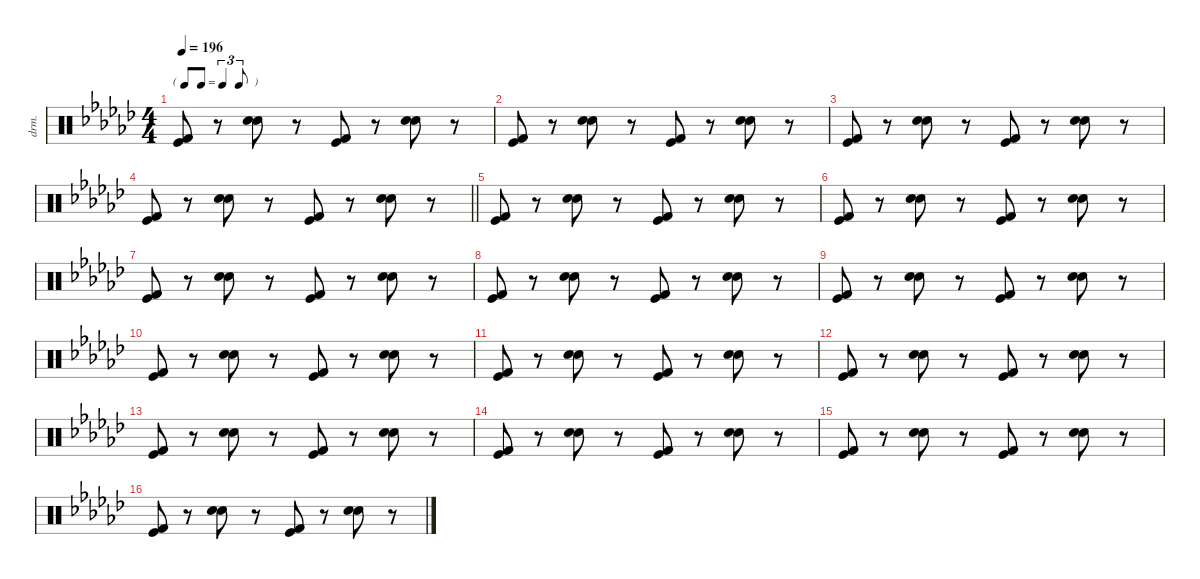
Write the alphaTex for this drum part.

\defaultSystemsLayout 4
\hideDynamics
\bracketExtendMode nobrackets
\otherSystemsTrackNameOrientation horizontal
\track ("Percussions" "drm.") {defaultSystemsLayout 4 instrument percussion}
\staff {score}
\articulation defaults
\ts (4 4)
\tf triplet8th
\tempo 196
\clef neutral
\ks gb
("Kick (hit) 2"{acc forcenatural} "Kick (hit)"{acc forcenatural}).8{dy f beam Up} r.8{beam Up} ("Snare (hit) 2"{acc forcenatural} "Snare (hit) 2"{acc forcenatural}).8{beam Down} r.8{beam Down} ("Kick (hit) 2"{acc forcenatural} "Kick (hit)"{acc forcenatural}).8{beam Up} r.8{beam Up} ("Snare (hit) 2"{acc forcenatural} "Snare (hit) 2"{acc forcenatural}).8{beam Down} r.8{beam Down} |
("Kick (hit) 2"{acc forcenatural} "Kick (hit)"{acc forcenatural}).8{beam Up} r.8{beam Up} ("Snare (hit) 2"{acc forcenatural} "Snare (hit) 2"{acc forcenatural}).8{beam Down} r.8{beam Down} ("Kick (hit) 2"{acc forcenatural} "Kick (hit)"{acc forcenatural}).8{beam Up} r.8{beam Up} ("Snare (hit) 2"{acc forcenatural} "Snare (hit) 2"{acc forcenatural}).8{beam Down} r.8{beam Down} |
("Kick (hit) 2"{acc forcenatural} "Kick (hit)"{acc forcenatural}).8{beam Up} r.8{beam Up} ("Snare (hit) 2"{acc forcenatural} "Snare (hit) 2"{acc forcenatural}).8{beam Down} r.8{beam Down} ("Kick (hit) 2"{acc forcenatural} "Kick (hit)"{acc forcenatural}).8{beam Up} r.8{beam Up} ("Snare (hit) 2"{acc forcenatural} "Snare (hit) 2"{acc forcenatural}).8{beam Down} r.8{beam Down} |
\barLineRight lightlight
("Kick (hit) 2"{acc forcenatural} "Kick (hit)"{acc forcenatural}).8{beam Up} r.8{beam Up} ("Snare (hit) 2"{acc forcenatural} "Snare (hit) 2"{acc forcenatural}).8{beam Down} r.8{beam Down} ("Kick (hit) 2"{acc forcenatural} "Kick (hit)"{acc forcenatural}).8{beam Up} r.8{beam Up} ("Snare (hit) 2"{acc forcenatural} "Snare (hit) 2"{acc forcenatural}).8{beam Down} r.8{beam Down} |
("Kick (hit) 2"{acc forcenatural} "Kick (hit)"{acc forcenatural}).8{beam Up} r.8{beam Up} ("Snare (hit) 2"{acc forcenatural} "Snare (hit) 2"{acc forcenatural}).8{beam Down} r.8{beam Down} ("Kick (hit) 2"{acc forcenatural} "Kick (hit)"{acc forcenatural}).8{beam Up} r.8{beam Up} ("Snare (hit) 2"{acc forcenatural} "Snare (hit) 2"{acc forcenatural}).8{beam Down} r.8{beam Down} |
("Kick (hit) 2"{acc forcenatural} "Kick (hit)"{acc forcenatural}).8{beam Up} r.8{beam Up} ("Snare (hit) 2"{acc forcenatural} "Snare (hit) 2"{acc forcenatural}).8{beam Down} r.8{beam Down} ("Kick (hit) 2"{acc forcenatural} "Kick (hit)"{acc forcenatural}).8{beam Up} r.8{beam Up} ("Snare (hit) 2"{acc forcenatural} "Snare (hit) 2"{acc forcenatural}).8{beam Down} r.8{beam Down} |
("Kick (hit) 2"{acc forcenatural} "Kick (hit)"{acc forcenatural}).8{beam Up} r.8{beam Up} ("Snare (hit) 2"{acc forcenatural} "Snare (hit) 2"{acc forcenatural}).8{beam Down} r.8{beam Down} ("Kick (hit) 2"{acc forcenatural} "Kick (hit)"{acc forcenatural}).8{beam Up} r.8{beam Up} ("Snare (hit) 2"{acc forcenatural} "Snare (hit) 2"{acc forcenatural}).8{beam Down} r.8{beam Down} |
("Kick (hit) 2"{acc forcenatural} "Kick (hit)"{acc forcenatural}).8{beam Up} r.8{beam Up} ("Snare (hit) 2"{acc forcenatural} "Snare (hit) 2"{acc forcenatural}).8{beam Down} r.8{beam Down} ("Kick (hit) 2"{acc forcenatural} "Kick (hit)"{acc forcenatural}).8{beam Up} r.8{beam Up} ("Snare (hit) 2"{acc forcenatural} "Snare (hit) 2"{acc forcenatural}).8{beam Down} r.8{beam Down} |
("Kick (hit) 2"{acc forcenatural} "Kick (hit)"{acc forcenatural}).8{beam Up} r.8{beam Up} ("Snare (hit) 2"{acc forcenatural} "Snare (hit) 2"{acc forcenatural}).8{beam Down} r.8{beam Down} ("Kick (hit) 2"{acc forcenatural} "Kick (hit)"{acc forcenatural}).8{beam Up} r.8{beam Up} ("Snare (hit) 2"{acc forcenatural} "Snare (hit) 2"{acc forcenatural}).8{beam Down} r.8{beam Down} |
("Kick (hit) 2"{acc forcenatural} "Kick (hit)"{acc forcenatural}).8{beam Up} r.8{beam Up} ("Snare (hit) 2"{acc forcenatural} "Snare (hit) 2"{acc forcenatural}).8{beam Down} r.8{beam Down} ("Kick (hit) 2"{acc forcenatural} "Kick (hit)"{acc forcenatural}).8{beam Up} r.8{beam Up} ("Snare (hit) 2"{acc forcenatural} "Snare (hit) 2"{acc forcenatural}).8{beam Down} r.8{beam Down} |
("Kick (hit) 2"{acc forcenatural} "Kick (hit)"{acc forcenatural}).8{beam Up} r.8{beam Up} ("Snare (hit) 2"{acc forcenatural} "Snare (hit) 2"{acc forcenatural}).8{beam Down} r.8{beam Down} ("Kick (hit) 2"{acc forcenatural} "Kick (hit)"{acc forcenatural}).8{beam Up} r.8{beam Up} ("Snare (hit) 2"{acc forcenatural} "Snare (hit) 2"{acc forcenatural}).8{beam Down} r.8{beam Down} |
("Kick (hit) 2"{acc forcenatural} "Kick (hit)"{acc forcenatural}).8{beam Up} r.8{beam Up} ("Snare (hit) 2"{acc forcenatural} "Snare (hit) 2"{acc forcenatural}).8{beam Down} r.8{beam Down} ("Kick (hit) 2"{acc forcenatural} "Kick (hit)"{acc forcenatural}).8{beam Up} r.8{beam Up} ("Snare (hit) 2"{acc forcenatural} "Snare (hit) 2"{acc forcenatural}).8{beam Down} r.8{beam Down} |
("Kick (hit) 2"{acc forcenatural} "Kick (hit)"{acc forcenatural}).8{beam Up} r.8{beam Up} ("Snare (hit) 2"{acc forcenatural} "Snare (hit) 2"{acc forcenatural}).8{beam Down} r.8{beam Down} ("Kick (hit) 2"{acc forcenatural} "Kick (hit)"{acc forcenatural}).8{beam Up} r.8{beam Up} ("Snare (hit) 2"{acc forcenatural} "Snare (hit) 2"{acc forcenatural}).8{beam Down} r.8{beam Down} |
("Kick (hit) 2"{acc forcenatural} "Kick (hit)"{acc forcenatural}).8{beam Up} r.8{beam Up} ("Snare (hit) 2"{acc forcenatural} "Snare (hit) 2"{acc forcenatural}).8{beam Down} r.8{beam Down} ("Kick (hit) 2"{acc forcenatural} "Kick (hit)"{acc forcenatural}).8{beam Up} r.8{beam Up} ("Snare (hit) 2"{acc forcenatural} "Snare (hit) 2"{acc forcenatural}).8{beam Down} r.8{beam Down} |
("Kick (hit) 2"{acc forcenatural} "Kick (hit)"{acc forcenatural}).8{beam Up} r.8{beam Up} ("Snare (hit) 2"{acc forcenatural} "Snare (hit) 2"{acc forcenatural}).8{beam Down} r.8{beam Down} ("Kick (hit) 2"{acc forcenatural} "Kick (hit)"{acc forcenatural}).8{beam Up} r.8{beam Up} ("Snare (hit) 2"{acc forcenatural} "Snare (hit) 2"{acc forcenatural}).8{beam Down} r.8{beam Down} |
("Kick (hit) 2"{acc forcenatural} "Kick (hit)"{acc forcenatural}).8{beam Up} r.8{beam Up} ("Snare (hit) 2"{acc forcenatural} "Snare (hit) 2"{acc forcenatural}).8{beam Down} r.8{beam Down} ("Kick (hit) 2"{acc forcenatural} "Kick (hit)"{acc forcenatural}).8{beam Up} r.8{beam Up} ("Snare (hit) 2"{acc forcenatural} "Snare (hit) 2"{acc forcenatural}).8{beam Down} r.8{beam Down}
